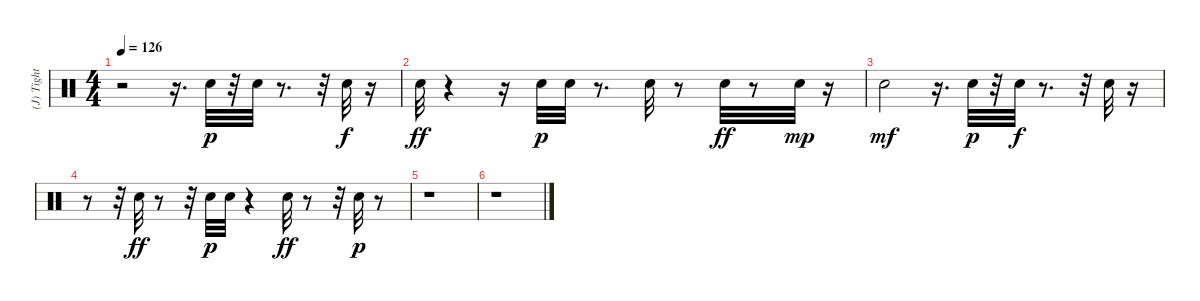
\track ("(J) Tight Snare" "(J) Tight ") {instrument percussion}
\staff {score}
\articulation defaults
\ts (4 4)
\tempo 126
\clef neutral
\ks c
r.2{dy ff} r.16{d} "Electric Snare (hit)".32{dy p} r.32 "Electric Snare (hit)".32 r.8{d} r.32 "Electric Snare (hit)".32{dy f} r.16 |
"Electric Snare (hit)".32{dy ff} r.4 r.16 "Electric Snare (hit)".32{dy p} "Electric Snare (hit)".32 r.8{d} "Electric Snare (hit)".32 r.8 "Electric Snare (hit)".32{dy ff} r.8 "Electric Snare (hit)".32{dy mp} r.16 |
"Electric Snare (hit)".2{dy mf} r.16{d} "Electric Snare (hit)".32{dy p} r.32 "Electric Snare (hit)".32{dy f} r.8{d} r.32 "Electric Snare (hit)".32 r.16 |
r.8 r.32 "Electric Snare (hit)".32{dy ff} r.8 r.32 "Electric Snare (hit)".32{dy p} "Electric Snare (hit)".32 r.4 "Electric Snare (hit)".32{dy ff} r.8 r.32 "Electric Snare (hit)".32{dy p} r.8 |
r.1 |
r.1
